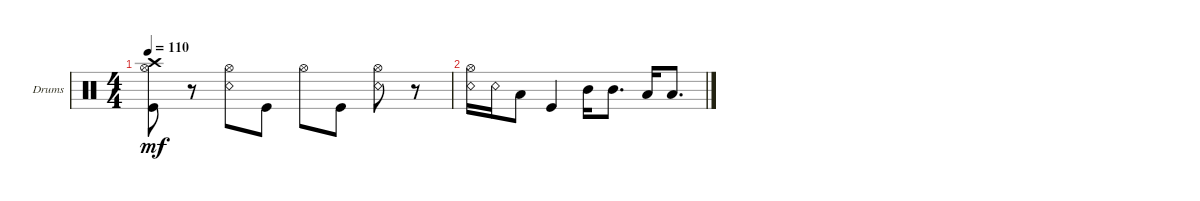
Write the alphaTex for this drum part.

\defaultSystemsLayout 4
\bracketExtendMode groupsimilarinstruments
\firstSystemTrackNameOrientation horizontal
\otherSystemsTrackNameOrientation horizontal
\track ("Drumkit" "Drums") {instrument percussion}
\staff {score}
\articulation defaults
\ts (4 4)
\tempo 110
\clef neutral
\ks c
("Kick (hit)" "Hi-Hat (open)" "Crash high (hit)").8{dy mf} r.8 ("Hi-Hat (open)" "Snare (rim shot)").8 "Kick (hit)".8 "Hi-Hat (open)".8 "Kick (hit)".8 ("Snare (rim shot)" "Hi-Hat (open)").8 r.8 |
("Snare (rim shot)" "Hi-Hat (open)").16 "Snare (rim shot)".16 "Low Tom (hit)".8 "Kick (hit)".4 "Mid Tom (hit)".16 "Mid Tom (hit)".8{d} "Low Tom (hit)".16 "Low Tom (hit)".8{d}
